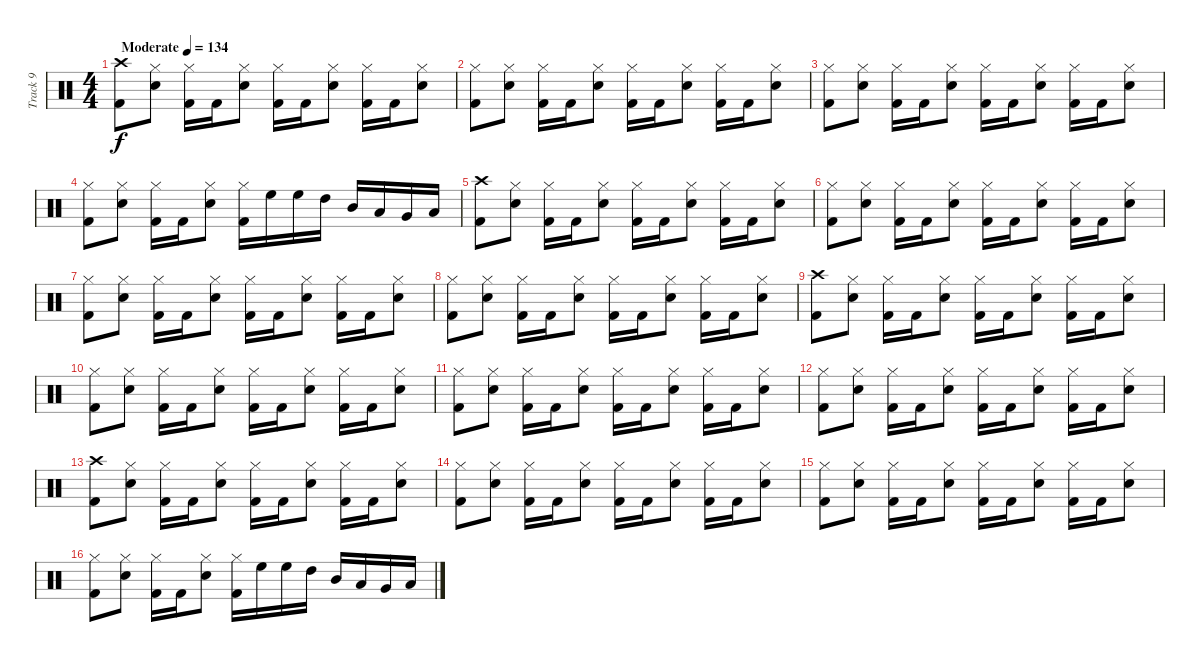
\track ("Track 9" "Track 9") {instrument percussion}
\staff {score}
\articulation defaults
\ts (4 4)
\tempo (134 "Moderate")
\clef neutral
\ks c
("Crash high (hit)" "Kick (hit) 2").8{dy f} ("Hi-Hat (closed)" "Snare (hit) 2").8 ("Hi-Hat (closed)" "Kick (hit) 2").16 "Kick (hit) 2".16 ("Hi-Hat (closed)" "Snare (hit) 2").8 ("Hi-Hat (closed)" "Kick (hit) 2").16 "Kick (hit) 2".16 ("Hi-Hat (closed)" "Snare (hit) 2").8 ("Hi-Hat (closed)" "Kick (hit) 2").16 "Kick (hit) 2".16 ("Hi-Hat (closed)" "Snare (hit) 2").8 |
("Hi-Hat (closed)" "Kick (hit) 2").8 ("Hi-Hat (closed)" "Snare (hit) 2").8 ("Hi-Hat (closed)" "Kick (hit) 2").16 "Kick (hit) 2".16 ("Hi-Hat (closed)" "Snare (hit) 2").8 ("Hi-Hat (closed)" "Kick (hit) 2").16 "Kick (hit) 2".16 ("Hi-Hat (closed)" "Snare (hit) 2").8 ("Hi-Hat (closed)" "Kick (hit) 2").16 "Kick (hit) 2".16 ("Hi-Hat (closed)" "Snare (hit) 2").8 |
("Hi-Hat (closed)" "Kick (hit) 2").8 ("Hi-Hat (closed)" "Snare (hit) 2").8 ("Hi-Hat (closed)" "Kick (hit) 2").16 "Kick (hit) 2".16 ("Hi-Hat (closed)" "Snare (hit) 2").8 ("Hi-Hat (closed)" "Kick (hit) 2").16 "Kick (hit) 2".16 ("Hi-Hat (closed)" "Snare (hit) 2").8 ("Hi-Hat (closed)" "Kick (hit) 2").16 "Kick (hit) 2".16 ("Hi-Hat (closed)" "Snare (hit) 2").8 |
("Hi-Hat (closed)" "Kick (hit) 2").8 ("Hi-Hat (closed)" "Snare (hit) 2").8 ("Hi-Hat (closed)" "Kick (hit) 2").16 "Kick (hit) 2".16 ("Hi-Hat (closed)" "Snare (hit) 2").8 ("Hi-Hat (closed)" "Kick (hit) 2").16 "High Floor Tom (hit)".16 "High Floor Tom (hit)".16 "High Tom (hit)".16 "Mid Tom (hit)".16 "Low Tom (hit)".16 "Very Low Tom (hit)".16 "Low Floor Tom (hit)".16 |
("Crash high (hit)" "Kick (hit) 2").8 ("Hi-Hat (closed)" "Snare (hit) 2").8 ("Hi-Hat (closed)" "Kick (hit) 2").16 "Kick (hit) 2".16 ("Hi-Hat (closed)" "Snare (hit) 2").8 ("Hi-Hat (closed)" "Kick (hit) 2").16 "Kick (hit) 2".16 ("Hi-Hat (closed)" "Snare (hit) 2").8 ("Hi-Hat (closed)" "Kick (hit) 2").16 "Kick (hit) 2".16 ("Hi-Hat (closed)" "Snare (hit) 2").8 |
("Hi-Hat (closed)" "Kick (hit) 2").8 ("Hi-Hat (closed)" "Snare (hit) 2").8 ("Hi-Hat (closed)" "Kick (hit) 2").16 "Kick (hit) 2".16 ("Hi-Hat (closed)" "Snare (hit) 2").8 ("Hi-Hat (closed)" "Kick (hit) 2").16 "Kick (hit) 2".16 ("Hi-Hat (closed)" "Snare (hit) 2").8 ("Hi-Hat (closed)" "Kick (hit) 2").16 "Kick (hit) 2".16 ("Hi-Hat (closed)" "Snare (hit) 2").8 |
("Hi-Hat (closed)" "Kick (hit) 2").8 ("Hi-Hat (closed)" "Snare (hit) 2").8 ("Hi-Hat (closed)" "Kick (hit) 2").16 "Kick (hit) 2".16 ("Hi-Hat (closed)" "Snare (hit) 2").8 ("Hi-Hat (closed)" "Kick (hit) 2").16 "Kick (hit) 2".16 ("Hi-Hat (closed)" "Snare (hit) 2").8 ("Hi-Hat (closed)" "Kick (hit) 2").16 "Kick (hit) 2".16 ("Hi-Hat (closed)" "Snare (hit) 2").8 |
("Hi-Hat (closed)" "Kick (hit) 2").8 ("Hi-Hat (closed)" "Snare (hit) 2").8 ("Hi-Hat (closed)" "Kick (hit) 2").16 "Kick (hit) 2".16 ("Hi-Hat (closed)" "Snare (hit) 2").8 ("Hi-Hat (closed)" "Kick (hit) 2").16 "Kick (hit) 2".16 ("Hi-Hat (closed)" "Snare (hit) 2").8 ("Hi-Hat (closed)" "Kick (hit) 2").16 "Kick (hit) 2".16 ("Hi-Hat (closed)" "Snare (hit) 2").8 |
("Crash high (hit)" "Kick (hit) 2").8 ("Hi-Hat (closed)" "Snare (hit) 2").8 ("Hi-Hat (closed)" "Kick (hit) 2").16 "Kick (hit) 2".16 ("Hi-Hat (closed)" "Snare (hit) 2").8 ("Hi-Hat (closed)" "Kick (hit) 2").16 "Kick (hit) 2".16 ("Hi-Hat (closed)" "Snare (hit) 2").8 ("Hi-Hat (closed)" "Kick (hit) 2").16 "Kick (hit) 2".16 ("Hi-Hat (closed)" "Snare (hit) 2").8 |
("Hi-Hat (closed)" "Kick (hit) 2").8 ("Hi-Hat (closed)" "Snare (hit) 2").8 ("Hi-Hat (closed)" "Kick (hit) 2").16 "Kick (hit) 2".16 ("Hi-Hat (closed)" "Snare (hit) 2").8 ("Hi-Hat (closed)" "Kick (hit) 2").16 "Kick (hit) 2".16 ("Hi-Hat (closed)" "Snare (hit) 2").8 ("Hi-Hat (closed)" "Kick (hit) 2").16 "Kick (hit) 2".16 ("Hi-Hat (closed)" "Snare (hit) 2").8 |
("Hi-Hat (closed)" "Kick (hit) 2").8 ("Hi-Hat (closed)" "Snare (hit) 2").8 ("Hi-Hat (closed)" "Kick (hit) 2").16 "Kick (hit) 2".16 ("Hi-Hat (closed)" "Snare (hit) 2").8 ("Hi-Hat (closed)" "Kick (hit) 2").16 "Kick (hit) 2".16 ("Hi-Hat (closed)" "Snare (hit) 2").8 ("Hi-Hat (closed)" "Kick (hit) 2").16 "Kick (hit) 2".16 ("Hi-Hat (closed)" "Snare (hit) 2").8 |
("Hi-Hat (closed)" "Kick (hit) 2").8 ("Hi-Hat (closed)" "Snare (hit) 2").8 ("Hi-Hat (closed)" "Kick (hit) 2").16 "Kick (hit) 2".16 ("Hi-Hat (closed)" "Snare (hit) 2").8 ("Hi-Hat (closed)" "Kick (hit) 2").16 "Kick (hit) 2".16 ("Hi-Hat (closed)" "Snare (hit) 2").8 ("Hi-Hat (closed)" "Kick (hit) 2").16 "Kick (hit) 2".16 ("Hi-Hat (closed)" "Snare (hit) 2").8 |
("Crash high (hit)" "Kick (hit) 2").8 ("Hi-Hat (closed)" "Snare (hit) 2").8 ("Hi-Hat (closed)" "Kick (hit) 2").16 "Kick (hit) 2".16 ("Hi-Hat (closed)" "Snare (hit) 2").8 ("Hi-Hat (closed)" "Kick (hit) 2").16 "Kick (hit) 2".16 ("Hi-Hat (closed)" "Snare (hit) 2").8 ("Hi-Hat (closed)" "Kick (hit) 2").16 "Kick (hit) 2".16 ("Hi-Hat (closed)" "Snare (hit) 2").8 |
("Hi-Hat (closed)" "Kick (hit) 2").8 ("Hi-Hat (closed)" "Snare (hit) 2").8 ("Hi-Hat (closed)" "Kick (hit) 2").16 "Kick (hit) 2".16 ("Hi-Hat (closed)" "Snare (hit) 2").8 ("Hi-Hat (closed)" "Kick (hit) 2").16 "Kick (hit) 2".16 ("Hi-Hat (closed)" "Snare (hit) 2").8 ("Hi-Hat (closed)" "Kick (hit) 2").16 "Kick (hit) 2".16 ("Hi-Hat (closed)" "Snare (hit) 2").8 |
("Hi-Hat (closed)" "Kick (hit) 2").8 ("Hi-Hat (closed)" "Snare (hit) 2").8 ("Hi-Hat (closed)" "Kick (hit) 2").16 "Kick (hit) 2".16 ("Hi-Hat (closed)" "Snare (hit) 2").8 ("Hi-Hat (closed)" "Kick (hit) 2").16 "Kick (hit) 2".16 ("Hi-Hat (closed)" "Snare (hit) 2").8 ("Hi-Hat (closed)" "Kick (hit) 2").16 "Kick (hit) 2".16 ("Hi-Hat (closed)" "Snare (hit) 2").8 |
("Hi-Hat (closed)" "Kick (hit) 2").8 ("Hi-Hat (closed)" "Snare (hit) 2").8 ("Hi-Hat (closed)" "Kick (hit) 2").16 "Kick (hit) 2".16 ("Hi-Hat (closed)" "Snare (hit) 2").8 ("Hi-Hat (closed)" "Kick (hit) 2").16 "High Floor Tom (hit)".16 "High Floor Tom (hit)".16 "High Tom (hit)".16 "Mid Tom (hit)".16 "Low Tom (hit)".16 "Very Low Tom (hit)".16 "Low Floor Tom (hit)".16
